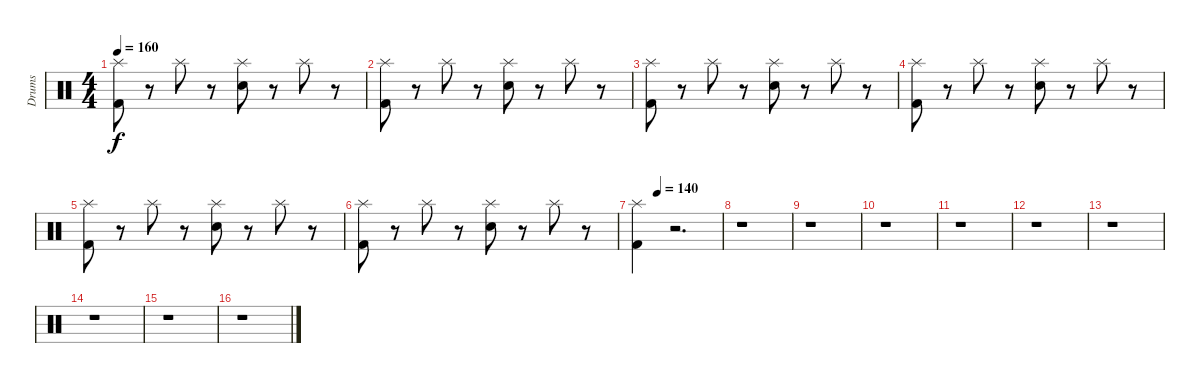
\track ("Drums" "Drums") {instrument percussion}
\staff {score}
\articulation defaults
\ts (4 4)
\tempo 160
\clef neutral
\ks c
("Splash (hit)" "Kick (hit) 2").8{dy f} r.8 "Splash (hit)".8 r.8 ("Splash (hit)" "Snare (hit) 2").8 r.8 "Splash (hit)".8 r.8 |
("Splash (hit)" "Kick (hit) 2").8 r.8 "Splash (hit)".8 r.8 ("Splash (hit)" "Snare (hit) 2").8 r.8 "Splash (hit)".8 r.8 |
("Splash (hit)" "Kick (hit) 2").8 r.8 "Splash (hit)".8 r.8 ("Splash (hit)" "Snare (hit) 2").8 r.8 "Splash (hit)".8 r.8 |
("Splash (hit)" "Kick (hit) 2").8 r.8 "Splash (hit)".8 r.8 ("Splash (hit)" "Snare (hit) 2").8 r.8 "Splash (hit)".8 r.8 |
("Splash (hit)" "Kick (hit) 2").8 r.8 "Splash (hit)".8 r.8 ("Splash (hit)" "Snare (hit) 2").8 r.8 "Splash (hit)".8 r.8 |
("Splash (hit)" "Kick (hit) 2").8 r.8 "Splash (hit)".8 r.8 ("Splash (hit)" "Snare (hit) 2").8 r.8 "Splash (hit)".8 r.8 |
\tempo (140 0.25)
("Kick (hit) 2" "Splash (hit)").4 r.2{d} |
r.1 |
r.1 |
r.1 |
r.1 |
r.1 |
r.1 |
r.1 |
r.1 |
r.1
